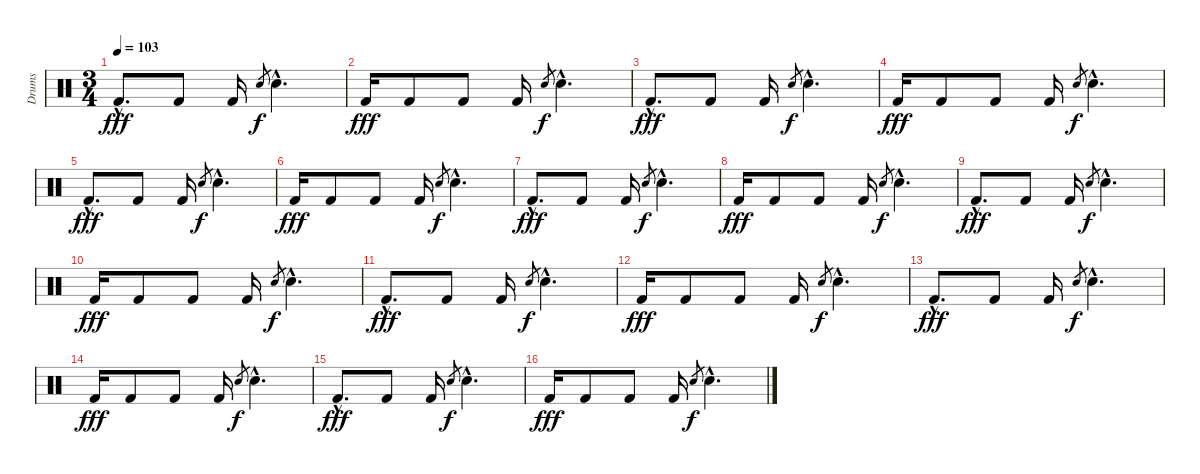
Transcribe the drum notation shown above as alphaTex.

\track ("Drums" "Drums") {instrument percussion}
\staff {score}
\articulation defaults
\ts (3 4)
\tempo 103
\clef neutral
\ks c "Kick (hit) 2"{hac}.8{d dy fff} "Kick (hit) 2".8 "Kick (hit) 2".16 "Snare (hit) 2".8{gr dy f} "Snare (hit) 2"{hac}.4{d}
|
"Kick (hit) 2".16{dy fff} "Kick (hit) 2".8 "Kick (hit) 2".8 "Kick (hit) 2".16 "Snare (hit) 2".8{gr dy f} "Snare (hit) 2"{hac}.4{d} |
"Kick (hit) 2"{hac}.8{d dy fff} "Kick (hit) 2".8 "Kick (hit) 2".16 "Snare (hit) 2".8{gr dy f} "Snare (hit) 2"{hac}.4{d} |
"Kick (hit) 2".16{dy fff} "Kick (hit) 2".8 "Kick (hit) 2".8 "Kick (hit) 2".16 "Snare (hit) 2".8{gr dy f} "Snare (hit) 2"{hac}.4{d} |
"Kick (hit) 2"{hac}.8{d dy fff} "Kick (hit) 2".8 "Kick (hit) 2".16 "Snare (hit) 2".8{gr dy f} "Snare (hit) 2"{hac}.4{d} |
"Kick (hit) 2".16{dy fff} "Kick (hit) 2".8 "Kick (hit) 2".8 "Kick (hit) 2".16 "Snare (hit) 2".8{gr dy f} "Snare (hit) 2"{hac}.4{d} |
"Kick (hit) 2"{hac}.8{d dy fff} "Kick (hit) 2".8 "Kick (hit) 2".16 "Snare (hit) 2".8{gr dy f} "Snare (hit) 2"{hac}.4{d} |
"Kick (hit) 2".16{dy fff} "Kick (hit) 2".8 "Kick (hit) 2".8 "Kick (hit) 2".16 "Snare (hit) 2".8{gr dy f} "Snare (hit) 2"{hac}.4{d} |
"Kick (hit) 2"{hac}.8{d dy fff} "Kick (hit) 2".8 "Kick (hit) 2".16 "Snare (hit) 2".8{gr dy f} "Snare (hit) 2"{hac}.4{d} |
"Kick (hit) 2".16{dy fff} "Kick (hit) 2".8 "Kick (hit) 2".8 "Kick (hit) 2".16 "Snare (hit) 2".8{gr dy f} "Snare (hit) 2"{hac}.4{d} |
"Kick (hit) 2"{hac}.8{d dy fff} "Kick (hit) 2".8 "Kick (hit) 2".16 "Snare (hit) 2".8{gr dy f} "Snare (hit) 2"{hac}.4{d} |
"Kick (hit) 2".16{dy fff} "Kick (hit) 2".8 "Kick (hit) 2".8 "Kick (hit) 2".16 "Snare (hit) 2".8{gr dy f} "Snare (hit) 2"{hac}.4{d} |
"Kick (hit) 2"{hac}.8{d dy fff} "Kick (hit) 2".8 "Kick (hit) 2".16 "Snare (hit) 2".8{gr dy f} "Snare (hit) 2"{hac}.4{d} |
"Kick (hit) 2".16{dy fff} "Kick (hit) 2".8 "Kick (hit) 2".8 "Kick (hit) 2".16 "Snare (hit) 2".8{gr dy f} "Snare (hit) 2"{hac}.4{d} |
"Kick (hit) 2"{hac}.8{d dy fff} "Kick (hit) 2".8 "Kick (hit) 2".16 "Snare (hit) 2".8{gr dy f} "Snare (hit) 2"{hac}.4{d} |
"Kick (hit) 2".16{dy fff} "Kick (hit) 2".8 "Kick (hit) 2".8 "Kick (hit) 2".16 "Snare (hit) 2".8{gr dy f} "Snare (hit) 2"{hac}.4{d}
